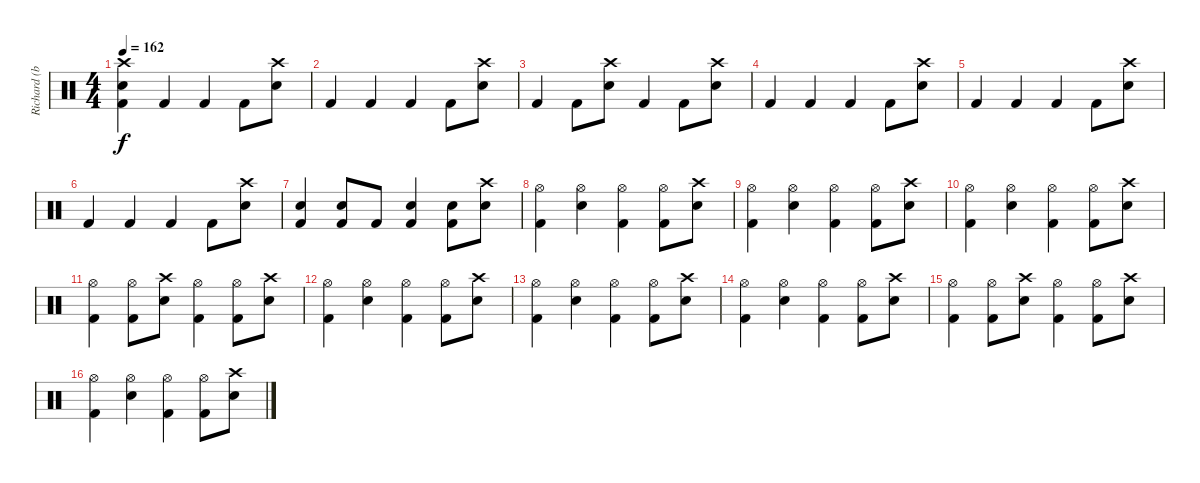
\track ("Richard (batterie)" "Richard (b") {instrument percussion}
\staff {score}
\articulation defaults
\ts (4 4)
\tempo 162
\clef neutral
\ks c
("Crash high (hit)" "Snare (hit) 2" "Kick (hit) 2").4{dy f} "Kick (hit) 2".4 "Kick (hit) 2".4 "Kick (hit) 2".8 ("Crash high (hit)" "Snare (hit) 2").8 |
"Kick (hit) 2".4 "Kick (hit) 2".4 "Kick (hit) 2".4 "Kick (hit) 2".8 ("Crash high (hit)" "Snare (hit) 2").8 |
"Kick (hit) 2".4 "Kick (hit) 2".8 ("Crash high (hit)" "Snare (hit) 2").8 "Kick (hit) 2".4 "Kick (hit) 2".8 ("Crash high (hit)" "Snare (hit) 2").8 |
"Kick (hit) 2".4 "Kick (hit) 2".4 "Kick (hit) 2".4 "Kick (hit) 2".8 ("Crash high (hit)" "Snare (hit) 2").8 |
"Kick (hit) 2".4 "Kick (hit) 2".4 "Kick (hit) 2".4 "Kick (hit) 2".8 ("Crash high (hit)" "Snare (hit) 2").8 |
"Kick (hit) 2".4 "Kick (hit) 2".4 "Kick (hit) 2".4 "Kick (hit) 2".8 ("Crash high (hit)" "Snare (hit) 2").8 |
("Snare (hit) 2" "Kick (hit) 2").4 ("Snare (hit) 2" "Kick (hit) 2").8 "Kick (hit) 2".8 ("Snare (hit) 2" "Kick (hit) 2").4 ("Snare (hit) 2" "Kick (hit) 2").8 ("Crash high (hit)" "Snare (hit) 2").8 |
("Hi-Hat (open)" "Kick (hit) 2").4 ("Hi-Hat (open)" "Snare (hit) 2").4 ("Hi-Hat (open)" "Kick (hit) 2").4 ("Hi-Hat (open)" "Kick (hit) 2").8 ("Crash high (hit)" "Snare (hit) 2").8 |
("Hi-Hat (open)" "Kick (hit) 2").4 ("Hi-Hat (open)" "Snare (hit) 2").4 ("Hi-Hat (open)" "Kick (hit) 2").4 ("Hi-Hat (open)" "Kick (hit) 2").8 ("Crash high (hit)" "Snare (hit) 2").8 |
("Hi-Hat (open)" "Kick (hit) 2").4 ("Hi-Hat (open)" "Snare (hit) 2").4 ("Hi-Hat (open)" "Kick (hit) 2").4 ("Hi-Hat (open)" "Kick (hit) 2").8 ("Crash high (hit)" "Snare (hit) 2").8 |
("Hi-Hat (open)" "Kick (hit) 2").4 ("Hi-Hat (open)" "Kick (hit) 2").8 ("Crash high (hit)" "Snare (hit) 2").8 ("Hi-Hat (open)" "Kick (hit) 2").4 ("Hi-Hat (open)" "Kick (hit) 2").8 ("Crash high (hit)" "Snare (hit) 2").8 |
("Hi-Hat (open)" "Kick (hit) 2").4 ("Hi-Hat (open)" "Snare (hit) 2").4 ("Hi-Hat (open)" "Kick (hit) 2").4 ("Hi-Hat (open)" "Kick (hit) 2").8 ("Crash high (hit)" "Snare (hit) 2").8 |
("Hi-Hat (open)" "Kick (hit) 2").4 ("Hi-Hat (open)" "Snare (hit) 2").4 ("Hi-Hat (open)" "Kick (hit) 2").4 ("Hi-Hat (open)" "Kick (hit) 2").8 ("Crash high (hit)" "Snare (hit) 2").8 |
("Hi-Hat (open)" "Kick (hit) 2").4 ("Hi-Hat (open)" "Snare (hit) 2").4 ("Hi-Hat (open)" "Kick (hit) 2").4 ("Hi-Hat (open)" "Kick (hit) 2").8 ("Crash high (hit)" "Snare (hit) 2").8 |
("Hi-Hat (open)" "Kick (hit) 2").4 ("Hi-Hat (open)" "Kick (hit) 2").8 ("Crash high (hit)" "Snare (hit) 2").8 ("Hi-Hat (open)" "Kick (hit) 2").4 ("Hi-Hat (open)" "Kick (hit) 2").8 ("Crash high (hit)" "Snare (hit) 2").8 |
("Hi-Hat (open)" "Kick (hit) 2").4 ("Hi-Hat (open)" "Snare (hit) 2").4 ("Hi-Hat (open)" "Kick (hit) 2").4 ("Hi-Hat (open)" "Kick (hit) 2").8 ("Crash high (hit)" "Snare (hit) 2").8
